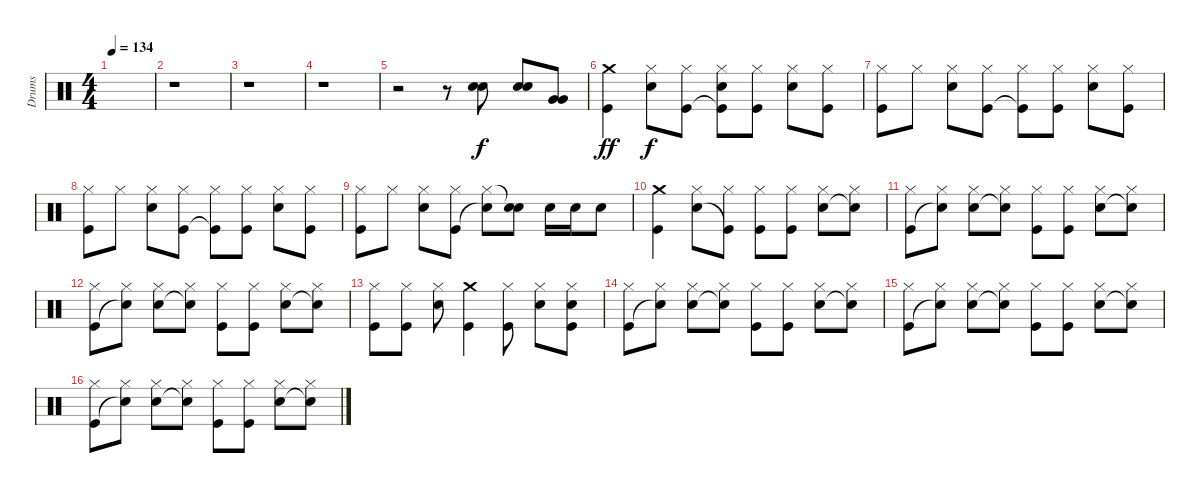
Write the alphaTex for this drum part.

\track ("Drums" "Drums") {instrument percussion}
\staff {score}
\articulation defaults
\ts (4 4)
\tempo 134
\clef neutral
\ks c
|
r.1 |
r.1 |
r.1 |
r.2 r.8 ("Snare (hit) 2" "Snare (hit) 2").8 ("Snare (hit) 2" "Snare (hit) 2").8 ("Very Low Tom (hit)" "Very Low Tom (hit)").8 |
("Kick (hit)" "Crash medium (hit)").4{dy ff} ("Snare (hit) 2" "Hi-Hat (closed)").8{dy f} ("Kick (hit)" "Hi-Hat (closed)").8 ("Kick (hit)"{t} "Hi-Hat (closed)" "Snare (hit)").8 ("Kick (hit)" "Hi-Hat (closed)").8 ("Snare (hit) 2" "Hi-Hat (closed)").8 ("Kick (hit)" "Hi-Hat (closed)").8 |
("Kick (hit)" "Hi-Hat (closed)").8 "Hi-Hat (closed)".8 ("Snare (hit) 2" "Hi-Hat (closed)").8 ("Kick (hit)" "Hi-Hat (closed)").8 ("Kick (hit)"{t} "Hi-Hat (closed)").8 ("Kick (hit)" "Hi-Hat (closed)").8 ("Snare (hit) 2" "Hi-Hat (closed)").8 ("Kick (hit)" "Hi-Hat (closed)").8 |
("Kick (hit)" "Hi-Hat (closed)").8 "Hi-Hat (closed)".8 ("Snare (hit) 2" "Hi-Hat (closed)").8 ("Kick (hit)" "Hi-Hat (closed)").8 ("Kick (hit)"{t} "Hi-Hat (closed)").8 ("Kick (hit)" "Hi-Hat (closed)").8 ("Snare (hit) 2" "Hi-Hat (closed)").8 ("Kick (hit)" "Hi-Hat (closed)").8 |
("Kick (hit)" "Hi-Hat (closed)").8 "Hi-Hat (closed)".8 ("Snare (hit) 2" "Hi-Hat (closed)").8 ("Kick (hit)" "Hi-Hat (closed)").8 ("Snare (hit) 2"{t} "Hi-Hat (closed)").8 ("Snare (hit) 2" "Snare (hit) 2"{t}).8 "Snare (hit) 2".16 "Snare (hit) 2".16 "Snare (hit) 2".8 |
("Kick (hit)" "Crash medium (hit)").4 ("Snare (hit) 2" "Hi-Hat (closed)").8 ("Kick (hit)"{t} "Hi-Hat (closed)").8 ("Kick (hit)" "Hi-Hat (closed)").8 ("Kick (hit)" "Hi-Hat (closed)").8 ("Snare (hit) 2" "Hi-Hat (closed)").8 ("Snare (hit)"{t} "Hi-Hat (closed)").8 |
("Kick (hit)" "Hi-Hat (closed)").8 ("Snare (hit)"{t} "Hi-Hat (closed)").8 ("Snare (hit) 2" "Hi-Hat (closed)").8 ("Snare (hit)"{t} "Hi-Hat (closed)").8 ("Kick (hit)" "Hi-Hat (closed)").8 ("Kick (hit)" "Hi-Hat (closed)").8 ("Snare (hit) 2" "Hi-Hat (closed)").8 ("Snare (hit)"{t} "Hi-Hat (closed)").8 |
("Kick (hit)" "Hi-Hat (closed)").8 ("Snare (hit)"{t} "Hi-Hat (closed)").8 ("Snare (hit) 2" "Hi-Hat (closed)").8 ("Snare (hit)"{t} "Hi-Hat (closed)").8 ("Kick (hit)" "Hi-Hat (closed)").8 ("Kick (hit)" "Hi-Hat (closed)").8 ("Snare (hit) 2" "Hi-Hat (closed)").8 ("Snare (hit)"{t} "Hi-Hat (closed)").8 |
("Kick (hit)" "Hi-Hat (closed)").8 ("Kick (hit)" "Hi-Hat (closed)").8 ("Snare (hit) 2" "Hi-Hat (closed)").8 ("Kick (hit)" "Crash medium (hit)").4 ("Kick (hit)" "Hi-Hat (closed)").8 ("Snare (hit) 2" "Hi-Hat (closed)").8 ("Kick (hit)" "Hi-Hat (closed)" "Snare (hit)").8 |
("Kick (hit)" "Hi-Hat (closed)").8 ("Snare (hit)"{t} "Hi-Hat (closed)").8 ("Snare (hit) 2" "Hi-Hat (closed)").8 ("Snare (hit)"{t} "Hi-Hat (closed)").8 ("Kick (hit)" "Hi-Hat (closed)").8 ("Kick (hit)" "Hi-Hat (closed)").8 ("Snare (hit) 2" "Hi-Hat (closed)").8 ("Snare (hit)"{t} "Hi-Hat (closed)").8 |
("Kick (hit)" "Hi-Hat (closed)").8 ("Snare (hit)"{t} "Hi-Hat (closed)").8 ("Snare (hit) 2" "Hi-Hat (closed)").8 ("Snare (hit)"{t} "Hi-Hat (closed)").8 ("Kick (hit)" "Hi-Hat (closed)").8 ("Kick (hit)" "Hi-Hat (closed)").8 ("Snare (hit) 2" "Hi-Hat (closed)").8 ("Snare (hit)"{t} "Hi-Hat (closed)").8 |
("Kick (hit)" "Hi-Hat (closed)").8 ("Snare (hit)"{t} "Hi-Hat (closed)").8 ("Snare (hit) 2" "Hi-Hat (closed)").8 ("Snare (hit)"{t} "Hi-Hat (closed)").8 ("Kick (hit)" "Hi-Hat (closed)").8 ("Kick (hit)" "Hi-Hat (closed)").8 ("Snare (hit) 2" "Hi-Hat (closed)").8 ("Snare (hit)"{t} "Hi-Hat (closed)").8
